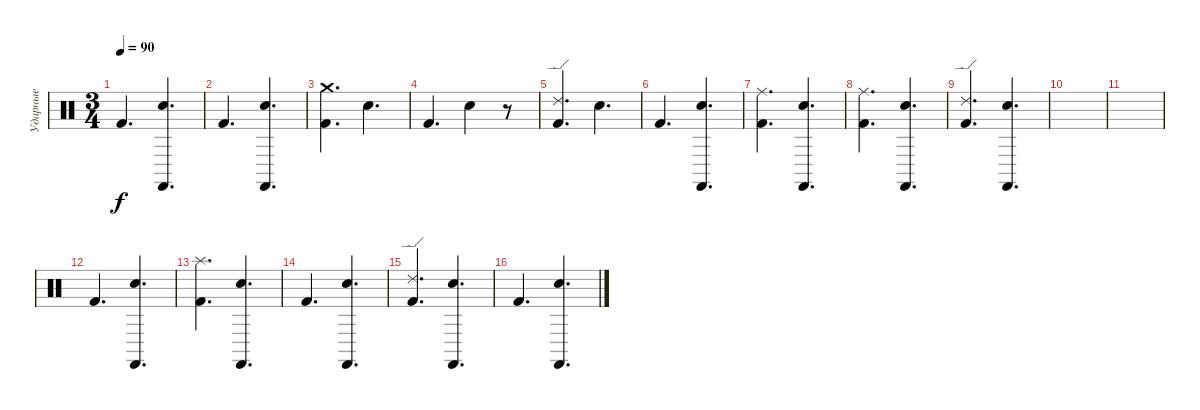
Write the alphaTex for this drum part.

\track ("Ударные" "Ударные") {instrument percussion}
\staff {score}
\articulation defaults
\ts (3 4)
\tempo 90
\clef neutral
\ks c "Kick (hit) 2".4{d dy f}
("Castanets (hit)" "Snare (hit) 2").4{d} |
"Kick (hit) 2".4{d} ("Castanets (hit)" "Snare (hit) 2").4{d} |
("Crash medium (hit)" "Kick (hit) 2").4{d} "Snare (hit) 2".4{d} |
"Kick (hit) 2".4{d} "Snare (hit) 2".4 r.8 |
("Ride (edge) 2" "Kick (hit) 2").4{d} "Snare (hit) 2".4{d} |
"Kick (hit) 2".4{d} ("Castanets (hit)" "Snare (hit) 2").4{d} |
("Ride (middle)" "Kick (hit) 2").4{d} ("Castanets (hit)" "Snare (hit) 2").4{d} |
("Ride (middle)" "Kick (hit) 2").4{d} ("Castanets (hit)" "Snare (hit) 2").4{d} |
("Ride (edge) 2" "Kick (hit) 2").4{d} ("Castanets (hit)" "Snare (hit) 2").4{d} |
|
|
"Kick (hit) 2".4{d} ("Castanets (hit)" "Snare (hit) 2").4{d} |
("Splash (hit)" "Kick (hit) 2").4{d} ("Castanets (hit)" "Snare (hit) 2").4{d} |
"Kick (hit) 2".4{d} ("Castanets (hit)" "Snare (hit) 2").4{d} |
("Ride (edge) 2" "Kick (hit) 2").4{d} ("Castanets (hit)" "Snare (hit) 2").4{d} |
"Kick (hit) 2".4{d} ("Castanets (hit)" "Snare (hit) 2").4{d}
